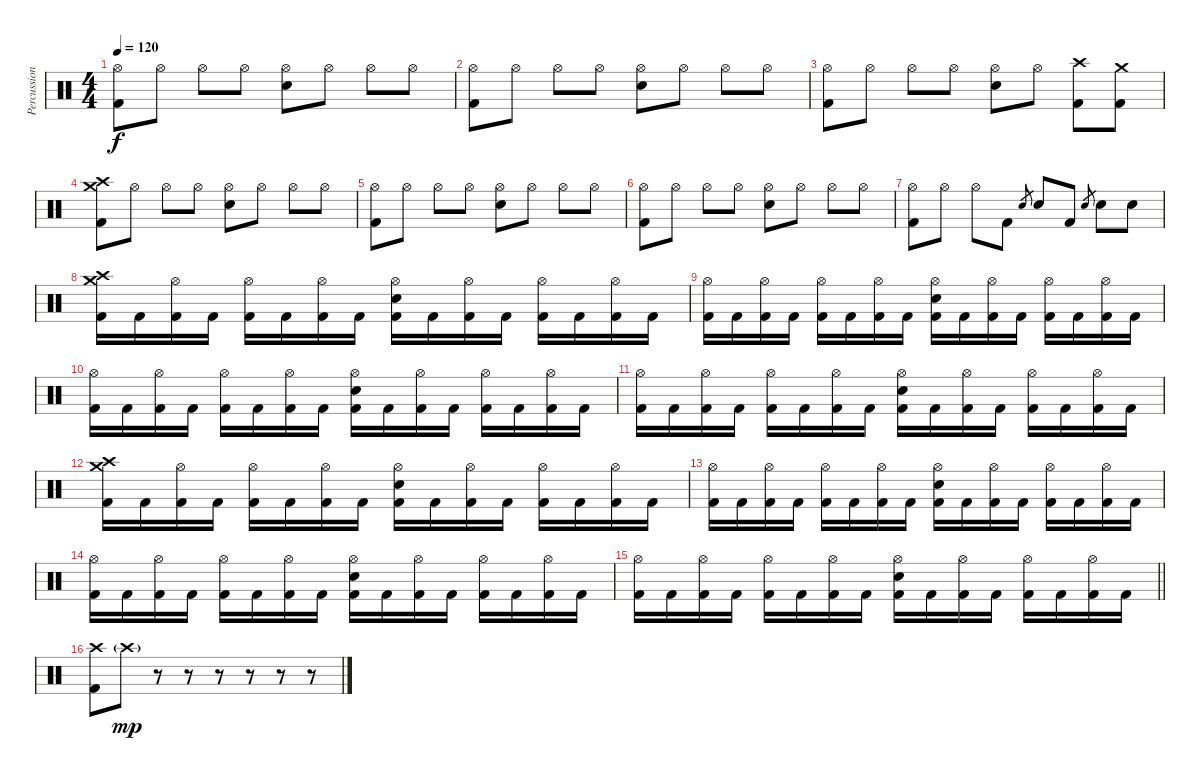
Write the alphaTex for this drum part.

\track ("Percussion" "Percussion") {instrument percussion}
\staff {score}
\articulation defaults
\ts (4 4)
\tempo 120
\clef neutral
\ks c
("Hi-Hat (open)" "Kick (hit) 2").8{dy f} "Hi-Hat (open)".8 "Hi-Hat (open)".8 "Hi-Hat (open)".8 ("Hi-Hat (open)" "Electric Snare (hit)").8 "Hi-Hat (open)".8 "Hi-Hat (open)".8 "Hi-Hat (open)".8 |
("Hi-Hat (open)" "Kick (hit) 2").8 "Hi-Hat (open)".8 "Hi-Hat (open)".8 "Hi-Hat (open)".8 ("Hi-Hat (open)" "Electric Snare (hit)").8 "Hi-Hat (open)".8 "Hi-Hat (open)".8 "Hi-Hat (open)".8 |
("Hi-Hat (open)" "Kick (hit) 2").8 "Hi-Hat (open)".8 "Hi-Hat (open)".8 "Hi-Hat (open)".8 ("Hi-Hat (open)" "Electric Snare (hit)").8 "Hi-Hat (open)".8 ("Crash high (hit)" "Kick (hit) 2").8 ("Crash medium (hit)" "Kick (hit) 2").8 |
("Crash medium (hit)" "Crash high (hit)" "Kick (hit) 2").8 "Hi-Hat (open)".8 "Hi-Hat (open)".8 "Hi-Hat (open)".8 ("Hi-Hat (open)" "Electric Snare (hit)").8 "Hi-Hat (open)".8 "Hi-Hat (open)".8 "Hi-Hat (open)".8 |
("Hi-Hat (open)" "Kick (hit) 2").8 "Hi-Hat (open)".8 "Hi-Hat (open)".8 "Hi-Hat (open)".8 ("Hi-Hat (open)" "Electric Snare (hit)").8 "Hi-Hat (open)".8 "Hi-Hat (open)".8 "Hi-Hat (open)".8 |
("Hi-Hat (open)" "Kick (hit) 2").8 "Hi-Hat (open)".8 "Hi-Hat (open)".8 "Hi-Hat (open)".8 ("Hi-Hat (open)" "Electric Snare (hit)").8 "Hi-Hat (open)".8 "Hi-Hat (open)".8 "Hi-Hat (open)".8 |
("Hi-Hat (open)" "Kick (hit) 2").8 "Hi-Hat (open)".8 "Hi-Hat (open)".8 "Kick (hit) 2".8 "Electric Snare (hit)".8{gr} "Electric Snare (hit)".8 "Kick (hit) 2".8 "Electric Snare (hit)".8{gr} "Electric Snare (hit)".8 "Electric Snare (hit)".8 |
("Crash medium (hit)" "Crash high (hit)" "Kick (hit) 2").16 "Kick (hit) 2".16 ("Hi-Hat (open)" "Kick (hit) 2").16 "Kick (hit) 2".16 ("Hi-Hat (open)" "Kick (hit) 2").16 "Kick (hit) 2".16 ("Hi-Hat (open)" "Kick (hit) 2").16 "Kick (hit) 2".16 ("Hi-Hat (open)" "Electric Snare (hit)" "Kick (hit) 2").16 "Kick (hit) 2".16 ("Hi-Hat (open)" "Kick (hit) 2").16 "Kick (hit) 2".16 ("Hi-Hat (open)" "Kick (hit) 2").16 "Kick (hit) 2".16 ("Hi-Hat (open)" "Kick (hit) 2").16 "Kick (hit) 2".16 |
("Hi-Hat (open)" "Kick (hit) 2").16 "Kick (hit) 2".16 ("Hi-Hat (open)" "Kick (hit) 2").16 "Kick (hit) 2".16 ("Hi-Hat (open)" "Kick (hit) 2").16 "Kick (hit) 2".16 ("Hi-Hat (open)" "Kick (hit) 2").16 "Kick (hit) 2".16 ("Hi-Hat (open)" "Electric Snare (hit)" "Kick (hit) 2").16 "Kick (hit) 2".16 ("Hi-Hat (open)" "Kick (hit) 2").16 "Kick (hit) 2".16 ("Hi-Hat (open)" "Kick (hit) 2").16 "Kick (hit) 2".16 ("Hi-Hat (open)" "Kick (hit) 2").16 "Kick (hit) 2".16 |
("Hi-Hat (open)" "Kick (hit) 2").16 "Kick (hit) 2".16 ("Hi-Hat (open)" "Kick (hit) 2").16 "Kick (hit) 2".16 ("Hi-Hat (open)" "Kick (hit) 2").16 "Kick (hit) 2".16 ("Hi-Hat (open)" "Kick (hit) 2").16 "Kick (hit) 2".16 ("Hi-Hat (open)" "Electric Snare (hit)" "Kick (hit) 2").16 "Kick (hit) 2".16 ("Hi-Hat (open)" "Kick (hit) 2").16 "Kick (hit) 2".16 ("Hi-Hat (open)" "Kick (hit) 2").16 "Kick (hit) 2".16 ("Hi-Hat (open)" "Kick (hit) 2").16 "Kick (hit) 2".16 |
("Hi-Hat (open)" "Kick (hit) 2").16 "Kick (hit) 2".16 ("Hi-Hat (open)" "Kick (hit) 2").16 "Kick (hit) 2".16 ("Hi-Hat (open)" "Kick (hit) 2").16 "Kick (hit) 2".16 ("Hi-Hat (open)" "Kick (hit) 2").16 "Kick (hit) 2".16 ("Hi-Hat (open)" "Electric Snare (hit)" "Kick (hit) 2").16 "Kick (hit) 2".16 ("Hi-Hat (open)" "Kick (hit) 2").16 "Kick (hit) 2".16 ("Hi-Hat (open)" "Kick (hit) 2").16 "Kick (hit) 2".16 ("Hi-Hat (open)" "Kick (hit) 2").16 "Kick (hit) 2".16 |
("Crash medium (hit)" "Crash high (hit)" "Kick (hit) 2").16 "Kick (hit) 2".16 ("Hi-Hat (open)" "Kick (hit) 2").16 "Kick (hit) 2".16 ("Hi-Hat (open)" "Kick (hit) 2").16 "Kick (hit) 2".16 ("Hi-Hat (open)" "Kick (hit) 2").16 "Kick (hit) 2".16 ("Hi-Hat (open)" "Electric Snare (hit)" "Kick (hit) 2").16 "Kick (hit) 2".16 ("Hi-Hat (open)" "Kick (hit) 2").16 "Kick (hit) 2".16 ("Hi-Hat (open)" "Kick (hit) 2").16 "Kick (hit) 2".16 ("Hi-Hat (open)" "Kick (hit) 2").16 "Kick (hit) 2".16 |
("Hi-Hat (open)" "Kick (hit) 2").16 "Kick (hit) 2".16 ("Hi-Hat (open)" "Kick (hit) 2").16 "Kick (hit) 2".16 ("Hi-Hat (open)" "Kick (hit) 2").16 "Kick (hit) 2".16 ("Hi-Hat (open)" "Kick (hit) 2").16 "Kick (hit) 2".16 ("Hi-Hat (open)" "Electric Snare (hit)" "Kick (hit) 2").16 "Kick (hit) 2".16 ("Hi-Hat (open)" "Kick (hit) 2").16 "Kick (hit) 2".16 ("Hi-Hat (open)" "Kick (hit) 2").16 "Kick (hit) 2".16 ("Hi-Hat (open)" "Kick (hit) 2").16 "Kick (hit) 2".16 |
("Hi-Hat (open)" "Kick (hit) 2").16 "Kick (hit) 2".16 ("Hi-Hat (open)" "Kick (hit) 2").16 "Kick (hit) 2".16 ("Hi-Hat (open)" "Kick (hit) 2").16 "Kick (hit) 2".16 ("Hi-Hat (open)" "Kick (hit) 2").16 "Kick (hit) 2".16 ("Hi-Hat (open)" "Electric Snare (hit)" "Kick (hit) 2").16 "Kick (hit) 2".16 ("Hi-Hat (open)" "Kick (hit) 2").16 "Kick (hit) 2".16 ("Hi-Hat (open)" "Kick (hit) 2").16 "Kick (hit) 2".16 ("Hi-Hat (open)" "Kick (hit) 2").16 "Kick (hit) 2".16 |
\barLineRight lightlight
("Hi-Hat (open)" "Kick (hit) 2").16 "Kick (hit) 2".16 ("Hi-Hat (open)" "Kick (hit) 2").16 "Kick (hit) 2".16 ("Hi-Hat (open)" "Kick (hit) 2").16 "Kick (hit) 2".16 ("Hi-Hat (open)" "Kick (hit) 2").16 "Kick (hit) 2".16 ("Hi-Hat (open)" "Electric Snare (hit)" "Kick (hit) 2").16 "Kick (hit) 2".16 ("Hi-Hat (open)" "Kick (hit) 2").16 "Kick (hit) 2".16 ("Hi-Hat (open)" "Kick (hit) 2").16 "Kick (hit) 2".16 ("Hi-Hat (open)" "Kick (hit) 2").16 "Kick (hit) 2".16 |
("Crash high (hit)" "Kick (hit) 2").8 "Crash high (hit)"{g}.8{dy mp} r.8 r.8 r.8 r.8 r.8 r.8
